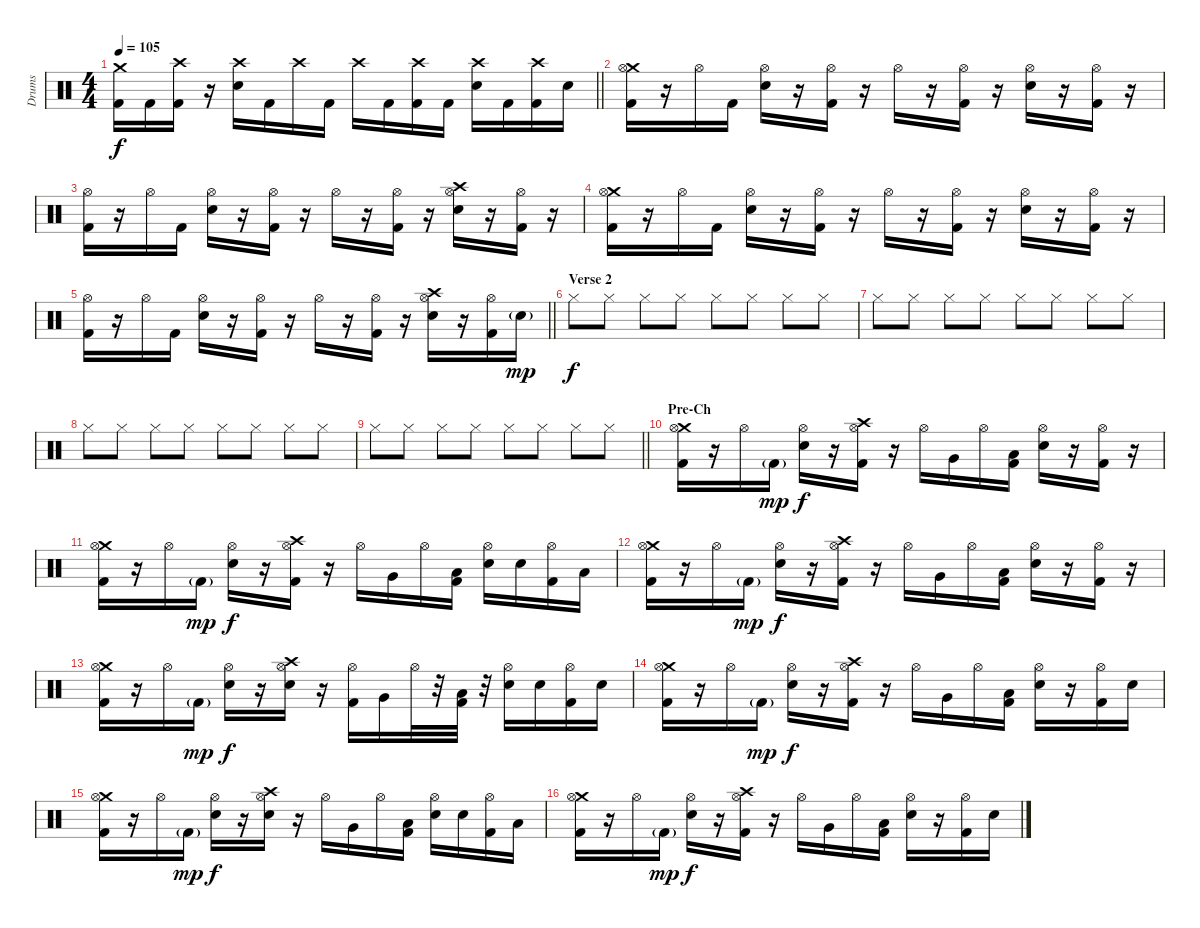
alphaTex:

\track ("Drums" "Drums") {instrument percussion}
\staff {score}
\articulation defaults
\ts (4 4)
\tempo 105
\clef neutral
\barLineRight lightlight
\ks c
("Crash medium (hit)" "Kick (hit) 2").16{dy f} "Kick (hit) 2".16 ("Crash high (hit)" "Kick (hit) 2").16 r.16 ("Crash high (hit)" "Electric Snare (hit)").16 "Kick (hit) 2".16 "Crash high (hit)".16 "Kick (hit) 2".16 "Crash high (hit)".16 "Kick (hit) 2".16 ("Crash high (hit)" "Kick (hit) 2").16 "Kick (hit) 2".16 ("Crash high (hit)" "Electric Snare (hit)").16 "Kick (hit) 2".16 ("Crash high (hit)" "Kick (hit) 2").16 "Electric Snare (hit)".16 |
("Crash medium (hit)" "Hi-Hat (open)" "Kick (hit) 2").16 r.16 "Hi-Hat (open)".16 "Kick (hit) 2".16 ("Hi-Hat (open)" "Electric Snare (hit)").16 r.16 ("Hi-Hat (open)" "Kick (hit) 2").16 r.16 "Hi-Hat (open)".16 r.16 ("Hi-Hat (open)" "Kick (hit) 2").16 r.16 ("Hi-Hat (open)" "Electric Snare (hit)").16 r.16 ("Hi-Hat (open)" "Kick (hit) 2").16 r.16 |
("Hi-Hat (open)" "Kick (hit) 2").16 r.16 "Hi-Hat (open)".16 "Kick (hit) 2".16 ("Hi-Hat (open)" "Electric Snare (hit)").16 r.16 ("Hi-Hat (open)" "Kick (hit) 2").16 r.16 "Hi-Hat (open)".16 r.16 ("Hi-Hat (open)" "Kick (hit) 2").16 r.16 ("Crash high (hit)" "Hi-Hat (open)" "Electric Snare (hit)").16 r.16 ("Hi-Hat (open)" "Kick (hit) 2").16 r.16 |
("Crash medium (hit)" "Hi-Hat (open)" "Kick (hit) 2").16 r.16 "Hi-Hat (open)".16 "Kick (hit) 2".16 ("Hi-Hat (open)" "Electric Snare (hit)").16 r.16 ("Hi-Hat (open)" "Kick (hit) 2").16 r.16 "Hi-Hat (open)".16 r.16 ("Hi-Hat (open)" "Kick (hit) 2").16 r.16 ("Hi-Hat (open)" "Electric Snare (hit)").16 r.16 ("Hi-Hat (open)" "Kick (hit) 2").16 r.16 |
\barLineRight lightlight
("Hi-Hat (open)" "Kick (hit) 2").16 r.16 "Hi-Hat (open)".16 "Kick (hit) 2".16 ("Hi-Hat (open)" "Electric Snare (hit)").16 r.16 ("Hi-Hat (open)" "Kick (hit) 2").16 r.16 "Hi-Hat (open)".16 r.16 ("Hi-Hat (open)" "Kick (hit) 2").16 r.16 ("Crash high (hit)" "Hi-Hat (open)" "Electric Snare (hit)").16 r.16 ("Hi-Hat (open)" "Kick (hit) 2").16 "Electric Snare (hit)"{g}.16{dy mp} |
\section ("" "Verse 2")
"Hi-Hat (closed)".8{dy f} "Hi-Hat (closed)".8 "Hi-Hat (closed)".8 "Hi-Hat (closed)".8 "Hi-Hat (closed)".8 "Hi-Hat (closed)".8 "Hi-Hat (closed)".8 "Hi-Hat (closed)".8 |
"Hi-Hat (closed)".8 "Hi-Hat (closed)".8 "Hi-Hat (closed)".8 "Hi-Hat (closed)".8 "Hi-Hat (closed)".8 "Hi-Hat (closed)".8 "Hi-Hat (closed)".8 "Hi-Hat (closed)".8 |
"Hi-Hat (closed)".8 "Hi-Hat (closed)".8 "Hi-Hat (closed)".8 "Hi-Hat (closed)".8 "Hi-Hat (closed)".8 "Hi-Hat (closed)".8 "Hi-Hat (closed)".8 "Hi-Hat (closed)".8 |
\barLineRight lightlight "Hi-Hat (closed)".8 "Hi-Hat (closed)".8 "Hi-Hat (closed)".8 "Hi-Hat (closed)".8 "Hi-Hat (closed)".8 "Hi-Hat (closed)".8 "Hi-Hat (closed)".8 "Hi-Hat (closed)".8
|
\section ("" "Pre-Ch")
("Crash medium (hit)" "Hi-Hat (open)" "Kick (hit) 2").16 r.16 "Hi-Hat (open)".16 "Kick (hit) 2"{g}.16{dy mp} ("Hi-Hat (open)" "Electric Snare (hit)").16{dy f} r.16 ("Crash high (hit)" "Hi-Hat (open)" "Kick (hit) 2").16 r.16 "Hi-Hat (open)".16 "Very Low Tom (hit)".16 "Hi-Hat (open)".16 ("Low Floor Tom (hit)" "Kick (hit) 2").16 ("Hi-Hat (open)" "Electric Snare (hit)").16 r.16 ("Hi-Hat (open)" "Kick (hit) 2").16 r.16 |
("Crash medium (hit)" "Hi-Hat (open)" "Kick (hit) 2").16 r.16 "Hi-Hat (open)".16 "Kick (hit) 2"{g}.16{dy mp} ("Hi-Hat (open)" "Electric Snare (hit)").16{dy f} r.16 ("Crash high (hit)" "Hi-Hat (open)" "Kick (hit) 2").16 r.16 "Hi-Hat (open)".16 "Very Low Tom (hit)".16 "Hi-Hat (open)".16 ("Low Floor Tom (hit)" "Kick (hit) 2").16 ("Hi-Hat (open)" "Electric Snare (hit)").16 "Electric Snare (hit)".16 ("Hi-Hat (open)" "Kick (hit) 2").16 "Low Floor Tom (hit)".16 |
("Crash medium (hit)" "Hi-Hat (open)" "Kick (hit) 2").16 r.16 "Hi-Hat (open)".16 "Kick (hit) 2"{g}.16{dy mp} ("Hi-Hat (open)" "Electric Snare (hit)").16{dy f} r.16 ("Crash high (hit)" "Hi-Hat (open)" "Kick (hit) 2").16 r.16 "Hi-Hat (open)".16 "Very Low Tom (hit)".16 "Hi-Hat (open)".16 ("Low Floor Tom (hit)" "Kick (hit) 2").16 ("Hi-Hat (open)" "Electric Snare (hit)").16 r.16 ("Hi-Hat (open)" "Kick (hit) 2").16 r.16 |
("Crash medium (hit)" "Hi-Hat (open)" "Kick (hit) 2").16 r.16 "Hi-Hat (open)".16 "Kick (hit) 2"{g}.16{dy mp} ("Hi-Hat (open)" "Electric Snare (hit)").16{dy f} r.16 ("Crash high (hit)" "Hi-Hat (open)" "Electric Snare (hit)").16 r.16 ("Hi-Hat (open)" "Kick (hit) 2").16 "Very Low Tom (hit)".16 "Hi-Hat (open)".32 r.32 ("Low Floor Tom (hit)" "Kick (hit) 2").32 r.32 ("Hi-Hat (open)" "Electric Snare (hit)").16 "Electric Snare (hit)".16 ("Hi-Hat (open)" "Kick (hit) 2").16 "Electric Snare (hit)".16 |
("Crash medium (hit)" "Hi-Hat (open)" "Kick (hit) 2").16 r.16 "Hi-Hat (open)".16 "Kick (hit) 2"{g}.16{dy mp} ("Hi-Hat (open)" "Electric Snare (hit)").16{dy f} r.16 ("Crash high (hit)" "Hi-Hat (open)" "Kick (hit) 2").16 r.16 "Hi-Hat (open)".16 "Very Low Tom (hit)".16 "Hi-Hat (open)".16 ("Low Floor Tom (hit)" "Kick (hit) 2").16 ("Hi-Hat (open)" "Electric Snare (hit)").16 r.16 ("Hi-Hat (open)" "Kick (hit) 2").16 "Electric Snare (hit)".16 |
("Crash medium (hit)" "Hi-Hat (open)" "Kick (hit) 2").16 r.16 "Hi-Hat (open)".16 "Kick (hit) 2"{g}.16{dy mp} ("Hi-Hat (open)" "Electric Snare (hit)").16{dy f} r.16 ("Crash high (hit)" "Hi-Hat (open)" "Electric Snare (hit)").16 r.16 "Hi-Hat (open)".16 "Very Low Tom (hit)".16 "Hi-Hat (open)".16 ("Low Floor Tom (hit)" "Kick (hit) 2").16 ("Hi-Hat (open)" "Electric Snare (hit)").16 "Electric Snare (hit)".16 ("Hi-Hat (open)" "Kick (hit) 2").16 "Low Floor Tom (hit)".16 |
("Crash medium (hit)" "Hi-Hat (open)" "Kick (hit) 2").16 r.16 "Hi-Hat (open)".16 "Kick (hit) 2"{g}.16{dy mp} ("Hi-Hat (open)" "Electric Snare (hit)").16{dy f} r.16 ("Crash high (hit)" "Hi-Hat (open)" "Kick (hit) 2").16 r.16 "Hi-Hat (open)".16 "Very Low Tom (hit)".16 "Hi-Hat (open)".16 ("Low Floor Tom (hit)" "Kick (hit) 2").16 ("Hi-Hat (open)" "Electric Snare (hit)").16 r.16 ("Hi-Hat (open)" "Kick (hit) 2").16 "Electric Snare (hit)".16
